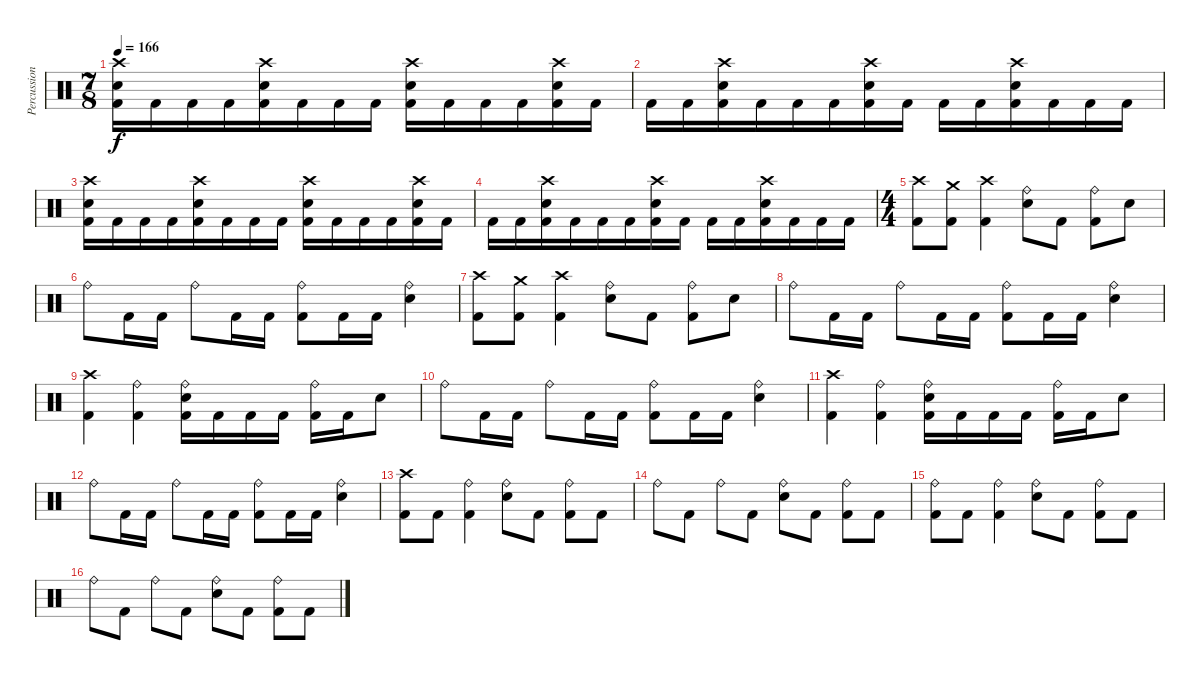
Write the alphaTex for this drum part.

\track ("Percussion" "Percussion") {instrument percussion}
\staff {score}
\articulation defaults
\ts (7 8)
\tempo 166
\clef neutral
\ks c
("Crash high (hit)" "Electric Snare (hit)" "Kick (hit) 2").16{dy f} "Kick (hit) 2".16 "Kick (hit) 2".16 "Kick (hit) 2".16 ("Crash high (hit)" "Electric Snare (hit)" "Kick (hit) 2").16 "Kick (hit) 2".16 "Kick (hit) 2".16 "Kick (hit) 2".16 ("Crash high (hit)" "Electric Snare (hit)" "Kick (hit) 2").16 "Kick (hit) 2".16 "Kick (hit) 2".16 "Kick (hit) 2".16 ("Crash high (hit)" "Electric Snare (hit)" "Kick (hit) 2").16 "Kick (hit) 2".16 |
"Kick (hit) 2".16 "Kick (hit) 2".16 ("Crash high (hit)" "Electric Snare (hit)" "Kick (hit) 2").16 "Kick (hit) 2".16 "Kick (hit) 2".16 "Kick (hit) 2".16 ("Crash high (hit)" "Electric Snare (hit)" "Kick (hit) 2").16 "Kick (hit) 2".16 "Kick (hit) 2".16 "Kick (hit) 2".16 ("Crash high (hit)" "Electric Snare (hit)" "Kick (hit) 2").16 "Kick (hit) 2".16 "Kick (hit) 2".16 "Kick (hit) 2".16 |
("Crash high (hit)" "Electric Snare (hit)" "Kick (hit) 2").16 "Kick (hit) 2".16 "Kick (hit) 2".16 "Kick (hit) 2".16 ("Crash high (hit)" "Electric Snare (hit)" "Kick (hit) 2").16 "Kick (hit) 2".16 "Kick (hit) 2".16 "Kick (hit) 2".16 ("Crash high (hit)" "Electric Snare (hit)" "Kick (hit) 2").16 "Kick (hit) 2".16 "Kick (hit) 2".16 "Kick (hit) 2".16 ("Crash high (hit)" "Electric Snare (hit)" "Kick (hit) 2").16 "Kick (hit) 2".16 |
"Kick (hit) 2".16 "Kick (hit) 2".16 ("Crash high (hit)" "Electric Snare (hit)" "Kick (hit) 2").16 "Kick (hit) 2".16 "Kick (hit) 2".16 "Kick (hit) 2".16 ("Crash high (hit)" "Electric Snare (hit)" "Kick (hit) 2").16 "Kick (hit) 2".16 "Kick (hit) 2".16 "Kick (hit) 2".16 ("Crash high (hit)" "Electric Snare (hit)" "Kick (hit) 2").16 "Kick (hit) 2".16 "Kick (hit) 2".16 "Kick (hit) 2".16 |
\ts (4 4)
("Crash high (hit)" "Kick (hit) 2").8 ("Crash medium (hit)" "Kick (hit) 2").8 ("Crash high (hit)" "Kick (hit) 2").4 ("Ride (bell)" "Electric Snare (hit)").8 "Kick (hit) 2".8 ("Ride (bell)" "Kick (hit) 2").8 "Electric Snare (hit)".8 |
"Ride (bell)".8 "Kick (hit) 2".16 "Kick (hit) 2".16 "Ride (bell)".8 "Kick (hit) 2".16 "Kick (hit) 2".16 ("Ride (bell)" "Kick (hit) 2").8 "Kick (hit) 2".16 "Kick (hit) 2".16 ("Ride (bell)" "Electric Snare (hit)").4 |
("Crash high (hit)" "Kick (hit) 2").8 ("Crash medium (hit)" "Kick (hit) 2").8 ("Crash high (hit)" "Kick (hit) 2").4 ("Ride (bell)" "Electric Snare (hit)").8 "Kick (hit) 2".8 ("Ride (bell)" "Kick (hit) 2").8 "Electric Snare (hit)".8 |
"Ride (bell)".8 "Kick (hit) 2".16 "Kick (hit) 2".16 "Ride (bell)".8 "Kick (hit) 2".16 "Kick (hit) 2".16 ("Ride (bell)" "Kick (hit) 2").8 "Kick (hit) 2".16 "Kick (hit) 2".16 ("Ride (bell)" "Electric Snare (hit)").4 |
("Crash high (hit)" "Kick (hit) 2").4 ("Ride (bell)" "Kick (hit) 2").4 ("Ride (bell)" "Electric Snare (hit)" "Kick (hit) 2").16 "Kick (hit) 2".16 "Kick (hit) 2".16 "Kick (hit) 2".16 ("Ride (bell)" "Kick (hit) 2").16 "Kick (hit) 2".16 "Electric Snare (hit)".8 |
"Ride (bell)".8 "Kick (hit) 2".16 "Kick (hit) 2".16 "Ride (bell)".8 "Kick (hit) 2".16 "Kick (hit) 2".16 ("Ride (bell)" "Kick (hit) 2").8 "Kick (hit) 2".16 "Kick (hit) 2".16 ("Ride (bell)" "Electric Snare (hit)").4 |
("Crash high (hit)" "Kick (hit) 2").4 ("Ride (bell)" "Kick (hit) 2").4 ("Ride (bell)" "Electric Snare (hit)" "Kick (hit) 2").16 "Kick (hit) 2".16 "Kick (hit) 2".16 "Kick (hit) 2".16 ("Ride (bell)" "Kick (hit) 2").16 "Kick (hit) 2".16 "Electric Snare (hit)".8 |
"Ride (bell)".8 "Kick (hit) 2".16 "Kick (hit) 2".16 "Ride (bell)".8 "Kick (hit) 2".16 "Kick (hit) 2".16 ("Ride (bell)" "Kick (hit) 2").8 "Kick (hit) 2".16 "Kick (hit) 2".16 ("Ride (bell)" "Electric Snare (hit)").4 |
("Crash high (hit)" "Kick (hit) 2").8 "Kick (hit) 2".8 ("Ride (bell)" "Kick (hit) 2").4 ("Ride (bell)" "Electric Snare (hit)").8 "Kick (hit) 2".8 ("Ride (bell)" "Kick (hit) 2").8 "Kick (hit) 2".8 |
"Ride (bell)".8 "Kick (hit) 2".8 "Ride (bell)".8 "Kick (hit) 2".8 ("Ride (bell)" "Electric Snare (hit)").8 "Kick (hit) 2".8 ("Ride (bell)" "Kick (hit) 2").8 "Kick (hit) 2".8 |
("Ride (bell)" "Kick (hit) 2").8 "Kick (hit) 2".8 ("Ride (bell)" "Kick (hit) 2").4 ("Ride (bell)" "Electric Snare (hit)").8 "Kick (hit) 2".8 ("Ride (bell)" "Kick (hit) 2").8 "Kick (hit) 2".8 |
"Ride (bell)".8 "Kick (hit) 2".8 "Ride (bell)".8 "Kick (hit) 2".8 ("Ride (bell)" "Electric Snare (hit)").8 "Kick (hit) 2".8 ("Ride (bell)" "Kick (hit) 2").8 "Kick (hit) 2".8
